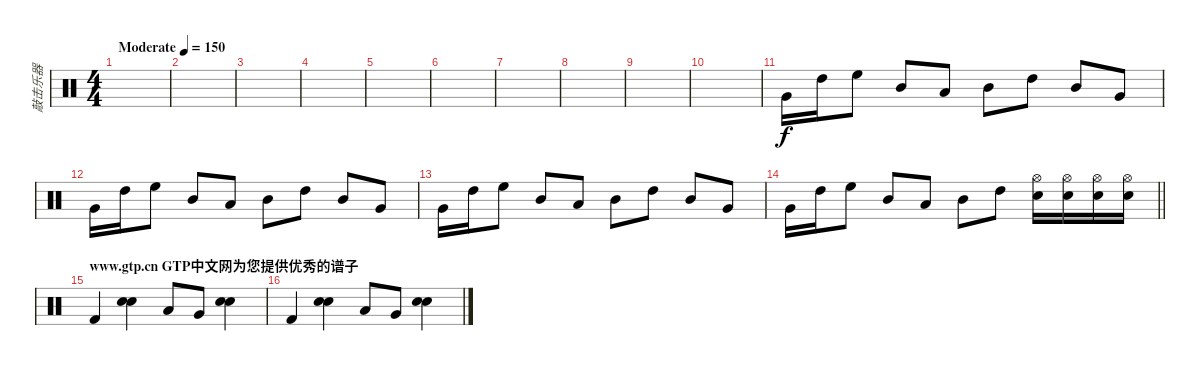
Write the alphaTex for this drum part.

\track ("敲击乐器" "敲击乐器") {instrument percussion}
\staff {score}
\articulation defaults
\ts (4 4)
\tempo (150 "Moderate")
\clef neutral
\ks c
|
|
|
|
|
|
|
|
|
|
"Very Low Tom (hit)".16 "High Tom (hit)".16 "High Floor Tom (hit)".8 "Mid Tom (hit)".8 "Low Tom (hit)".8 "Mid Tom (hit)".8 "High Tom (hit)".8 "Mid Tom (hit)".8 "Very Low Tom (hit)".8 |
"Very Low Tom (hit)".16 "High Tom (hit)".16 "High Floor Tom (hit)".8 "Mid Tom (hit)".8 "Low Tom (hit)".8 "Mid Tom (hit)".8 "High Tom (hit)".8 "Mid Tom (hit)".8 "Very Low Tom (hit)".8 |
"Very Low Tom (hit)".16 "High Tom (hit)".16 "High Floor Tom (hit)".8 "Mid Tom (hit)".8 "Low Tom (hit)".8 "Mid Tom (hit)".8 "High Tom (hit)".8 "Mid Tom (hit)".8 "Very Low Tom (hit)".8 |
\barLineRight lightlight "Very Low Tom (hit)".16 "High Tom (hit)".16 "High Floor Tom (hit)".8 "Mid Tom (hit)".8 "Low Tom (hit)".8 "Mid Tom (hit)".8 "High Tom (hit)".8
("Hi-Hat (open)" "Snare (hit) 2").16 ("Hi-Hat (open)" "Snare (hit) 2").16 ("Hi-Hat (open)" "Snare (hit) 2").16 ("Hi-Hat (open)" "Snare (hit) 2").16 |
\section ("" "www.gtp.cn GTP中文网为您提供优秀的谱子")
"Kick (hit) 2".4 ("Electric Snare (hit)" "Snare (hit) 2").4 "Low Tom (hit)".8 "Very Low Tom (hit)".8 ("Electric Snare (hit)" "Snare (hit) 2").4 |
"Kick (hit) 2".4 ("Electric Snare (hit)" "Snare (hit) 2").4 "Low Tom (hit)".8 "Very Low Tom (hit)".8 ("Electric Snare (hit)" "Snare (hit) 2").4
